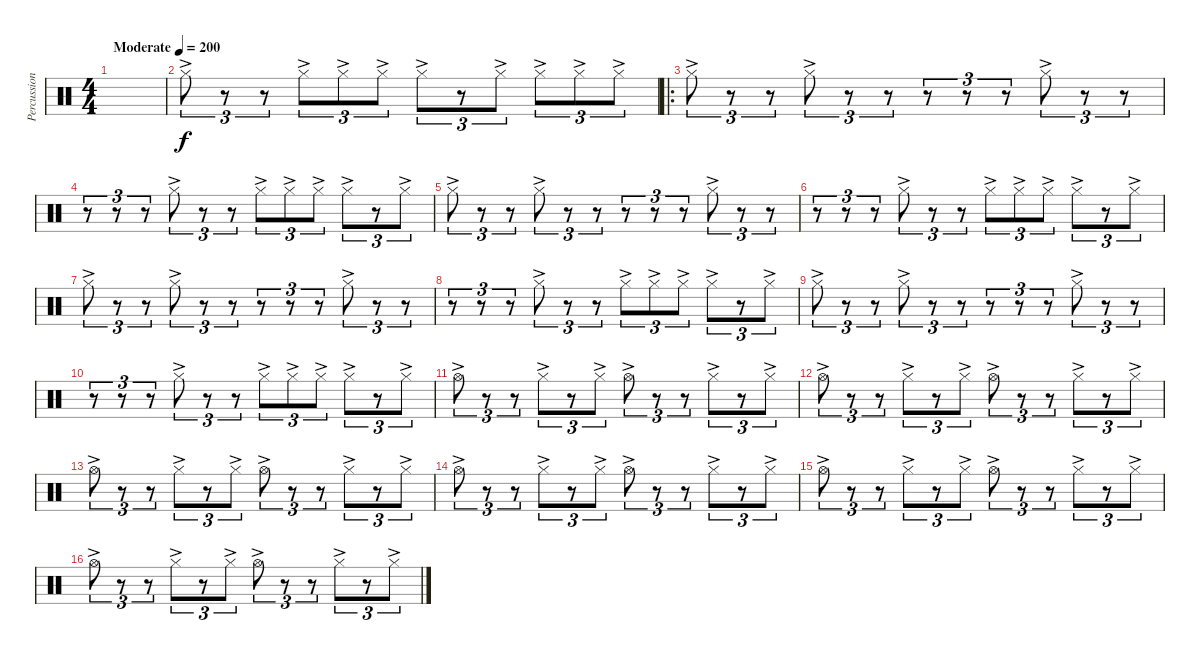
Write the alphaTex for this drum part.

\track ("Percussion" "Percussion") {instrument percussion}
\staff {score}
\articulation defaults
\ts (4 4)
\tempo (200 "Moderate")
\clef neutral
\ks c
|
"Hi-Hat (closed)"{ac}.8{tu (3 2)} r.8{tu (3 2)} r.8{tu (3 2)} "Hi-Hat (closed)"{ac}.8{tu (3 2)} "Hi-Hat (closed)"{ac}.8{tu (3 2)} "Hi-Hat (closed)"{ac}.8{tu (3 2)} "Hi-Hat (closed)"{ac}.8{tu (3 2)} r.8{tu (3 2)} "Hi-Hat (closed)"{ac}.8{tu (3 2)} "Hi-Hat (closed)"{ac}.8{tu (3 2)} "Hi-Hat (closed)"{ac}.8{tu (3 2)} "Hi-Hat (closed)"{ac}.8{tu (3 2)} |
\ro "Hi-Hat (closed)"{ac}.8{tu (3 2)}
r.8{tu (3 2)} r.8{tu (3 2)} "Hi-Hat (closed)"{ac}.8{tu (3 2)} r.8{tu (3 2)} r.8{tu (3 2)} r.8{tu (3 2)} r.8{tu (3 2)} r.8{tu (3 2)} "Hi-Hat (closed)"{ac}.8{tu (3 2)} r.8{tu (3 2)} r.8{tu (3 2)} |
r.8{tu (3 2)} r.8{tu (3 2)} r.8{tu (3 2)} "Hi-Hat (closed)"{ac}.8{tu (3 2)} r.8{tu (3 2)} r.8{tu (3 2)} "Hi-Hat (closed)"{ac}.8{tu (3 2)} "Hi-Hat (closed)"{ac}.8{tu (3 2)} "Hi-Hat (closed)"{ac}.8{tu (3 2)} "Hi-Hat (closed)"{ac}.8{tu (3 2)} r.8{tu (3 2)} "Hi-Hat (closed)"{ac}.8{tu (3 2)} |
"Hi-Hat (closed)"{ac}.8{tu (3 2)} r.8{tu (3 2)} r.8{tu (3 2)} "Hi-Hat (closed)"{ac}.8{tu (3 2)} r.8{tu (3 2)} r.8{tu (3 2)} r.8{tu (3 2)} r.8{tu (3 2)} r.8{tu (3 2)} "Hi-Hat (closed)"{ac}.8{tu (3 2)} r.8{tu (3 2)} r.8{tu (3 2)} |
r.8{tu (3 2)} r.8{tu (3 2)} r.8{tu (3 2)} "Hi-Hat (closed)"{ac}.8{tu (3 2)} r.8{tu (3 2)} r.8{tu (3 2)} "Hi-Hat (closed)"{ac}.8{tu (3 2)} "Hi-Hat (closed)"{ac}.8{tu (3 2)} "Hi-Hat (closed)"{ac}.8{tu (3 2)} "Hi-Hat (closed)"{ac}.8{tu (3 2)} r.8{tu (3 2)} "Hi-Hat (closed)"{ac}.8{tu (3 2)} |
"Hi-Hat (closed)"{ac}.8{tu (3 2)} r.8{tu (3 2)} r.8{tu (3 2)} "Hi-Hat (closed)"{ac}.8{tu (3 2)} r.8{tu (3 2)} r.8{tu (3 2)} r.8{tu (3 2)} r.8{tu (3 2)} r.8{tu (3 2)} "Hi-Hat (closed)"{ac}.8{tu (3 2)} r.8{tu (3 2)} r.8{tu (3 2)} |
r.8{tu (3 2)} r.8{tu (3 2)} r.8{tu (3 2)} "Hi-Hat (closed)"{ac}.8{tu (3 2)} r.8{tu (3 2)} r.8{tu (3 2)} "Hi-Hat (closed)"{ac}.8{tu (3 2)} "Hi-Hat (closed)"{ac}.8{tu (3 2)} "Hi-Hat (closed)"{ac}.8{tu (3 2)} "Hi-Hat (closed)"{ac}.8{tu (3 2)} r.8{tu (3 2)} "Hi-Hat (closed)"{ac}.8{tu (3 2)} |
"Hi-Hat (closed)"{ac}.8{tu (3 2)} r.8{tu (3 2)} r.8{tu (3 2)} "Hi-Hat (closed)"{ac}.8{tu (3 2)} r.8{tu (3 2)} r.8{tu (3 2)} r.8{tu (3 2)} r.8{tu (3 2)} r.8{tu (3 2)} "Hi-Hat (closed)"{ac}.8{tu (3 2)} r.8{tu (3 2)} r.8{tu (3 2)} |
r.8{tu (3 2)} r.8{tu (3 2)} r.8{tu (3 2)} "Hi-Hat (closed)"{ac}.8{tu (3 2)} r.8{tu (3 2)} r.8{tu (3 2)} "Hi-Hat (closed)"{ac}.8{tu (3 2)} "Hi-Hat (closed)"{ac}.8{tu (3 2)} "Hi-Hat (closed)"{ac}.8{tu (3 2)} "Hi-Hat (closed)"{ac}.8{tu (3 2)} r.8{tu (3 2)} "Hi-Hat (closed)"{ac}.8{tu (3 2)} |
"Hi-Hat (open)"{ac}.8{tu (3 2)} r.8{tu (3 2)} r.8{tu (3 2)} "Hi-Hat (closed)"{ac}.8{tu (3 2)} r.8{tu (3 2)} "Hi-Hat (closed)"{ac}.8{tu (3 2)} "Hi-Hat (open)"{ac}.8{tu (3 2)} r.8{tu (3 2)} r.8{tu (3 2)} "Hi-Hat (closed)"{ac}.8{tu (3 2)} r.8{tu (3 2)} "Hi-Hat (closed)"{ac}.8{tu (3 2)} |
"Hi-Hat (open)"{ac}.8{tu (3 2)} r.8{tu (3 2)} r.8{tu (3 2)} "Hi-Hat (closed)"{ac}.8{tu (3 2)} r.8{tu (3 2)} "Hi-Hat (closed)"{ac}.8{tu (3 2)} "Hi-Hat (open)"{ac}.8{tu (3 2)} r.8{tu (3 2)} r.8{tu (3 2)} "Hi-Hat (closed)"{ac}.8{tu (3 2)} r.8{tu (3 2)} "Hi-Hat (closed)"{ac}.8{tu (3 2)} |
"Hi-Hat (open)"{ac}.8{tu (3 2)} r.8{tu (3 2)} r.8{tu (3 2)} "Hi-Hat (closed)"{ac}.8{tu (3 2)} r.8{tu (3 2)} "Hi-Hat (closed)"{ac}.8{tu (3 2)} "Hi-Hat (open)"{ac}.8{tu (3 2)} r.8{tu (3 2)} r.8{tu (3 2)} "Hi-Hat (closed)"{ac}.8{tu (3 2)} r.8{tu (3 2)} "Hi-Hat (closed)"{ac}.8{tu (3 2)} |
"Hi-Hat (open)"{ac}.8{tu (3 2)} r.8{tu (3 2)} r.8{tu (3 2)} "Hi-Hat (closed)"{ac}.8{tu (3 2)} r.8{tu (3 2)} "Hi-Hat (closed)"{ac}.8{tu (3 2)} "Hi-Hat (open)"{ac}.8{tu (3 2)} r.8{tu (3 2)} r.8{tu (3 2)} "Hi-Hat (closed)"{ac}.8{tu (3 2)} r.8{tu (3 2)} "Hi-Hat (closed)"{ac}.8{tu (3 2)} |
"Hi-Hat (open)"{ac}.8{tu (3 2)} r.8{tu (3 2)} r.8{tu (3 2)} "Hi-Hat (closed)"{ac}.8{tu (3 2)} r.8{tu (3 2)} "Hi-Hat (closed)"{ac}.8{tu (3 2)} "Hi-Hat (open)"{ac}.8{tu (3 2)} r.8{tu (3 2)} r.8{tu (3 2)} "Hi-Hat (closed)"{ac}.8{tu (3 2)} r.8{tu (3 2)} "Hi-Hat (closed)"{ac}.8{tu (3 2)} |
"Hi-Hat (open)"{ac}.8{tu (3 2)} r.8{tu (3 2)} r.8{tu (3 2)} "Hi-Hat (closed)"{ac}.8{tu (3 2)} r.8{tu (3 2)} "Hi-Hat (closed)"{ac}.8{tu (3 2)} "Hi-Hat (open)"{ac}.8{tu (3 2)} r.8{tu (3 2)} r.8{tu (3 2)} "Hi-Hat (closed)"{ac}.8{tu (3 2)} r.8{tu (3 2)} "Hi-Hat (closed)"{ac}.8{tu (3 2)}
